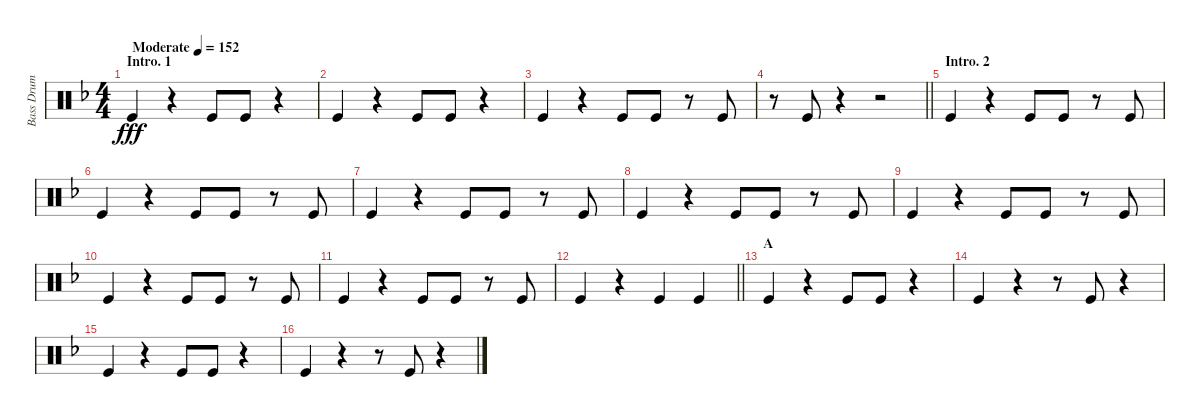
\track ("Bass Drum" "Bass Drum") {instrument percussion}
\staff {score}
\articulation defaults
\ts (4 4)
\section ("" "Intro. 1")
\tempo (152 "Moderate")
\clef neutral
\ks f "Kick (hit)".4{dy fff}
r.4 "Kick (hit)".8 "Kick (hit)".8 r.4 |
"Kick (hit)".4 r.4 "Kick (hit)".8 "Kick (hit)".8 r.4 |
"Kick (hit)".4 r.4 "Kick (hit)".8 "Kick (hit)".8 r.8 "Kick (hit)".8 |
\barLineRight lightlight
r.8 "Kick (hit)".8 r.4 r.2 |
\section ("" "Intro. 2")
"Kick (hit)".4 r.4 "Kick (hit)".8 "Kick (hit)".8 r.8 "Kick (hit)".8 |
"Kick (hit)".4 r.4 "Kick (hit)".8 "Kick (hit)".8 r.8 "Kick (hit)".8 |
"Kick (hit)".4 r.4 "Kick (hit)".8 "Kick (hit)".8 r.8 "Kick (hit)".8 |
"Kick (hit)".4 r.4 "Kick (hit)".8 "Kick (hit)".8 r.8 "Kick (hit)".8 |
"Kick (hit)".4 r.4 "Kick (hit)".8 "Kick (hit)".8 r.8 "Kick (hit)".8 |
"Kick (hit)".4 r.4 "Kick (hit)".8 "Kick (hit)".8 r.8 "Kick (hit)".8 |
"Kick (hit)".4 r.4 "Kick (hit)".8 "Kick (hit)".8 r.8 "Kick (hit)".8 |
\barLineRight lightlight "Kick (hit)".4
r.4 "Kick (hit)".4 "Kick (hit)".4 |
\section ("" "A")
"Kick (hit)".4 r.4 "Kick (hit)".8 "Kick (hit)".8 r.4 |
"Kick (hit)".4 r.4 r.8 "Kick (hit)".8 r.4 |
"Kick (hit)".4 r.4 "Kick (hit)".8 "Kick (hit)".8 r.4 |
"Kick (hit)".4 r.4 r.8 "Kick (hit)".8 r.4
